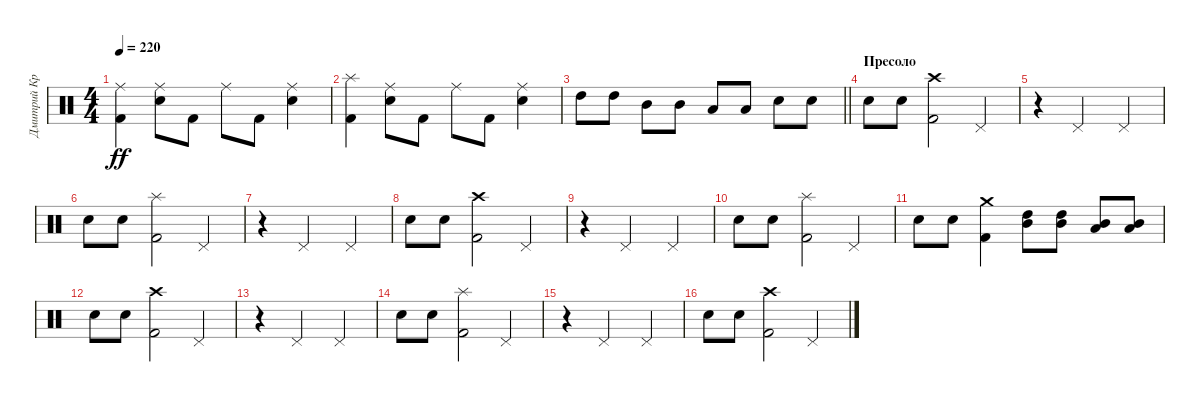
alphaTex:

\track ("Дмитрий Кривенков" "Дмитрий Кр") {instrument percussion}
\staff {score}
\articulation defaults
\ts (4 4)
\tempo 220
\clef neutral
\ks c
("Kick (hit) 2" "Ride (middle)").4{dy ff} ("Snare (hit) 2" "Ride (middle)").8 "Kick (hit) 2".8 "Ride (middle)".8 "Kick (hit) 2".8 ("Snare (hit) 2" "Ride (middle)").4 |
("Splash (hit)" "Kick (hit) 2").4 ("Ride (middle)" "Snare (hit) 2").8 "Kick (hit) 2".8 "Ride (middle)".8 "Kick (hit) 2".8 ("Ride (middle)" "Snare (hit) 2").4 |
\barLineRight lightlight "High Tom (hit)".8 "High Tom (hit)".8 "Mid Tom (hit)".8 "Mid Tom (hit)".8 "Low Tom (hit)".8 "Low Tom (hit)".8 "Snare (hit) 2".8 "Snare (hit) 2".8
|
\section ("" "Пресоло")
"Snare (hit) 2".8 "Snare (hit) 2".8 ("Crash high (hit)" "Kick (hit) 2").2 "Pedal Hi-Hat (hit)".4 |
r.4 "Pedal Hi-Hat (hit)".2 "Pedal Hi-Hat (hit)".4 |
"Snare (hit) 2".8 "Snare (hit) 2".8 ("Splash (hit)" "Kick (hit) 2").2 "Pedal Hi-Hat (hit)".4 |
r.4 "Pedal Hi-Hat (hit)".2 "Pedal Hi-Hat (hit)".4 |
"Snare (hit) 2".8 "Snare (hit) 2".8 ("Crash high (hit)" "Kick (hit) 2").2 "Pedal Hi-Hat (hit)".4 |
r.4 "Pedal Hi-Hat (hit)".2 "Pedal Hi-Hat (hit)".4 |
"Snare (hit) 2".8 "Snare (hit) 2".8 ("Splash (hit)" "Kick (hit) 2").2 "Pedal Hi-Hat (hit)".4 |
"Snare (hit) 2".8 "Snare (hit) 2".8 ("Crash medium (hit)" "Kick (hit) 2").4 ("Mid Tom (hit)" "High Tom (hit)").8 ("Mid Tom (hit)" "High Tom (hit)").8 ("Low Tom (hit)" "Mid Tom (hit)").8 ("Mid Tom (hit)" "Low Tom (hit)").8 |
"Snare (hit) 2".8 "Snare (hit) 2".8 ("Crash high (hit)" "Kick (hit) 2").2 "Pedal Hi-Hat (hit)".4 |
r.4 "Pedal Hi-Hat (hit)".2 "Pedal Hi-Hat (hit)".4 |
"Snare (hit) 2".8 "Snare (hit) 2".8 ("Splash (hit)" "Kick (hit) 2").2 "Pedal Hi-Hat (hit)".4 |
r.4 "Pedal Hi-Hat (hit)".2 "Pedal Hi-Hat (hit)".4 |
"Snare (hit) 2".8 "Snare (hit) 2".8 ("Crash high (hit)" "Kick (hit) 2").2 "Pedal Hi-Hat (hit)".4
